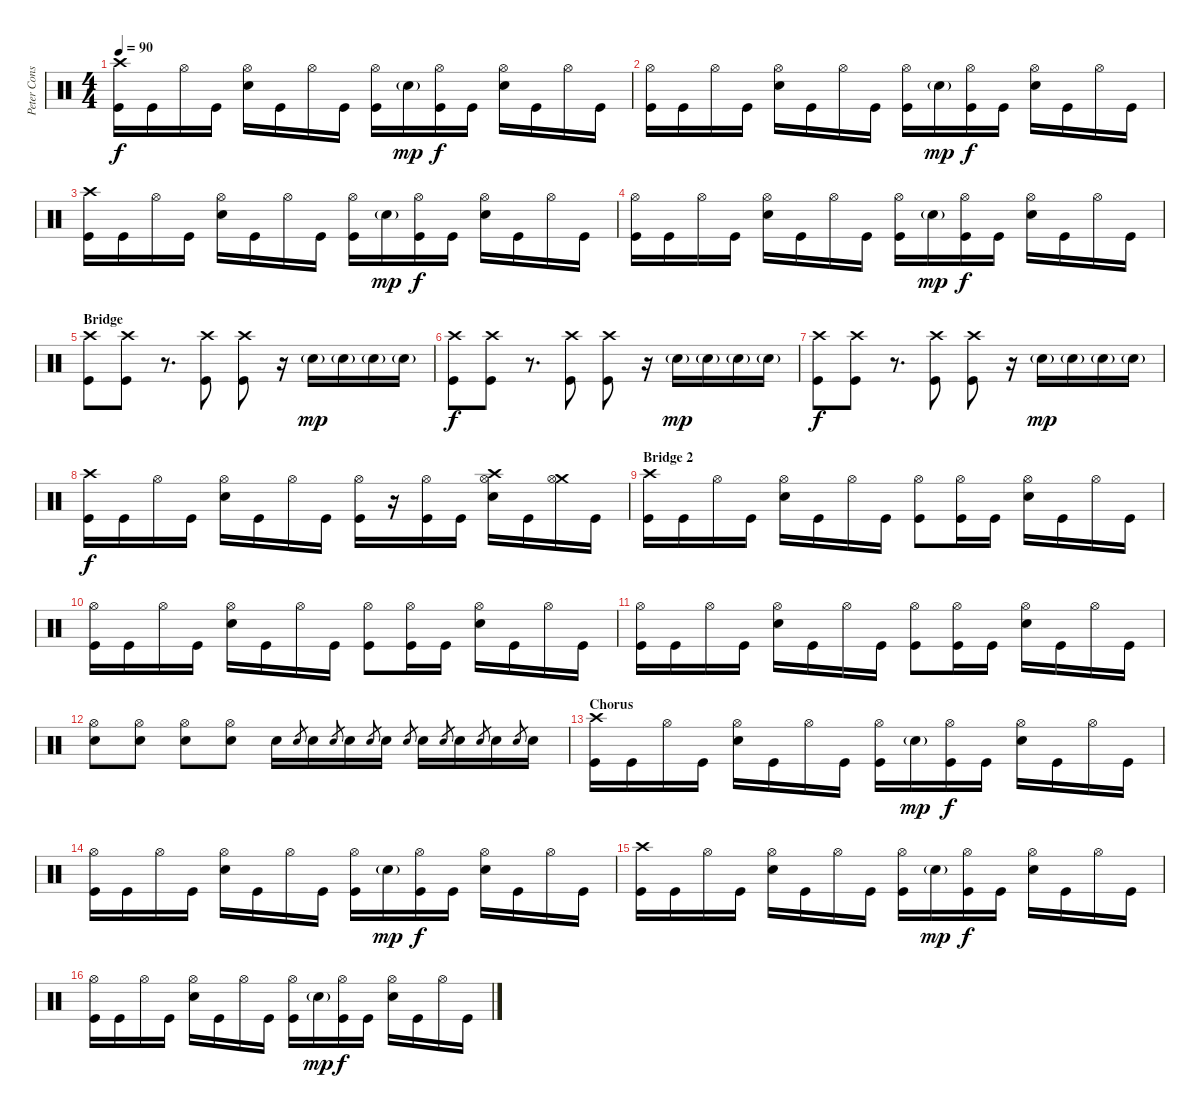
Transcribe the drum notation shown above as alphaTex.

\track ("Peter Constantinou" "Peter Cons") {instrument percussion}
\staff {score}
\articulation defaults
\ts (4 4)
\tempo 90
\clef neutral
\ks c
("Crash high (hit)" "Kick (hit)").16{dy f} "Kick (hit)".16 "Hi-Hat (open)".16 "Kick (hit)".16 ("Hi-Hat (open)" "Snare (hit) 2").16 "Kick (hit)".16 "Hi-Hat (open)".16 "Kick (hit)".16 ("Hi-Hat (open)" "Kick (hit)").16 "Snare (hit) 2"{g}.16{dy mp} ("Hi-Hat (open)" "Kick (hit)").16{dy f} "Kick (hit)".16 ("Hi-Hat (open)" "Snare (hit) 2").16 "Kick (hit)".16 "Hi-Hat (open)".16 "Kick (hit)".16 |
("Hi-Hat (open)" "Kick (hit)").16 "Kick (hit)".16 "Hi-Hat (open)".16 "Kick (hit)".16 ("Hi-Hat (open)" "Snare (hit) 2").16 "Kick (hit)".16 "Hi-Hat (open)".16 "Kick (hit)".16 ("Hi-Hat (open)" "Kick (hit)").16 "Snare (hit) 2"{g}.16{dy mp} ("Hi-Hat (open)" "Kick (hit)").16{dy f} "Kick (hit)".16 ("Hi-Hat (open)" "Snare (hit) 2").16 "Kick (hit)".16 "Hi-Hat (open)".16 "Kick (hit)".16 |
("Crash high (hit)" "Kick (hit)").16 "Kick (hit)".16 "Hi-Hat (open)".16 "Kick (hit)".16 ("Hi-Hat (open)" "Snare (hit) 2").16 "Kick (hit)".16 "Hi-Hat (open)".16 "Kick (hit)".16 ("Hi-Hat (open)" "Kick (hit)").16 "Snare (hit) 2"{g}.16{dy mp} ("Hi-Hat (open)" "Kick (hit)").16{dy f} "Kick (hit)".16 ("Hi-Hat (open)" "Snare (hit) 2").16 "Kick (hit)".16 "Hi-Hat (open)".16 "Kick (hit)".16 |
("Hi-Hat (open)" "Kick (hit)").16 "Kick (hit)".16 "Hi-Hat (open)".16 "Kick (hit)".16 ("Hi-Hat (open)" "Snare (hit) 2").16 "Kick (hit)".16 "Hi-Hat (open)".16 "Kick (hit)".16 ("Hi-Hat (open)" "Kick (hit)").16 "Snare (hit) 2"{g}.16{dy mp} ("Hi-Hat (open)" "Kick (hit)").16{dy f} "Kick (hit)".16 ("Hi-Hat (open)" "Snare (hit) 2").16 "Kick (hit)".16 "Hi-Hat (open)".16 "Kick (hit)".16 |
\section ("" "Bridge")
("Crash high (hit)" "Kick (hit)").8 ("Crash high (hit)" "Kick (hit)").8 r.8{d} ("Crash high (hit)" "Kick (hit)").8 ("Crash high (hit)" "Kick (hit)").8 r.16 "Snare (hit) 2"{g}.16{dy mp} "Snare (hit) 2"{g}.16 "Snare (hit) 2"{g}.16 "Snare (hit) 2"{g}.16 |
("Crash high (hit)" "Kick (hit)").8{dy f} ("Crash high (hit)" "Kick (hit)").8 r.8{d} ("Crash high (hit)" "Kick (hit)").8 ("Crash high (hit)" "Kick (hit)").8 r.16 "Snare (hit) 2"{g}.16{dy mp} "Snare (hit) 2"{g}.16 "Snare (hit) 2"{g}.16 "Snare (hit) 2"{g}.16 |
("Crash high (hit)" "Kick (hit)").8{dy f} ("Crash high (hit)" "Kick (hit)").8 r.8{d} ("Crash high (hit)" "Kick (hit)").8 ("Crash high (hit)" "Kick (hit)").8 r.16 "Snare (hit) 2"{g}.16{dy mp} "Snare (hit) 2"{g}.16 "Snare (hit) 2"{g}.16 "Snare (hit) 2"{g}.16 |
("Crash high (hit)" "Kick (hit)").16{dy f} "Kick (hit)".16 "Hi-Hat (open)".16 "Kick (hit)".16 ("Hi-Hat (open)" "Snare (hit) 2").16 "Kick (hit)".16 "Hi-Hat (open)".16 "Kick (hit)".16 ("Hi-Hat (open)" "Kick (hit)").16 r.16 ("Hi-Hat (open)" "Kick (hit)").16 "Kick (hit)".16 ("Crash high (hit)" "Hi-Hat (open)" "Snare (hit) 2").16 "Kick (hit)".16 ("Crash medium (hit)" "Hi-Hat (open)").16 "Kick (hit)".16 |
\section ("" "Bridge 2")
("Crash high (hit)" "Kick (hit)").16 "Kick (hit)".16 "Hi-Hat (open)".16 "Kick (hit)".16 ("Hi-Hat (open)" "Snare (hit) 2").16 "Kick (hit)".16 "Hi-Hat (open)".16 "Kick (hit)".16 ("Hi-Hat (open)" "Kick (hit)").8 ("Hi-Hat (open)" "Kick (hit)").16 "Kick (hit)".16 ("Hi-Hat (open)" "Snare (hit) 2").16 "Kick (hit)".16 "Hi-Hat (open)".16 "Kick (hit)".16 |
("Hi-Hat (open)" "Kick (hit)").16 "Kick (hit)".16 "Hi-Hat (open)".16 "Kick (hit)".16 ("Hi-Hat (open)" "Snare (hit) 2").16 "Kick (hit)".16 "Hi-Hat (open)".16 "Kick (hit)".16 ("Hi-Hat (open)" "Kick (hit)").8 ("Hi-Hat (open)" "Kick (hit)").16 "Kick (hit)".16 ("Hi-Hat (open)" "Snare (hit) 2").16 "Kick (hit)".16 "Hi-Hat (open)".16 "Kick (hit)".16 |
("Hi-Hat (open)" "Kick (hit)").16 "Kick (hit)".16 "Hi-Hat (open)".16 "Kick (hit)".16 ("Hi-Hat (open)" "Snare (hit) 2").16 "Kick (hit)".16 "Hi-Hat (open)".16 "Kick (hit)".16 ("Hi-Hat (open)" "Kick (hit)").8 ("Hi-Hat (open)" "Kick (hit)").16 "Kick (hit)".16 ("Hi-Hat (open)" "Snare (hit) 2").16 "Kick (hit)".16 "Hi-Hat (open)".16 "Kick (hit)".16 |
("Hi-Hat (open)" "Snare (hit) 2").8 ("Hi-Hat (open)" "Snare (hit) 2").8 ("Hi-Hat (open)" "Snare (hit) 2").8 ("Hi-Hat (open)" "Snare (hit) 2").8 "Snare (hit) 2".16 "Snare (hit) 2".8{gr} "Snare (hit) 2".16 "Snare (hit) 2".8{gr} "Snare (hit) 2".16 "Snare (hit) 2".8{gr} "Snare (hit) 2".16 "Snare (hit) 2".8{gr} "Snare (hit) 2".16 "Snare (hit) 2".8{gr} "Snare (hit) 2".16 "Snare (hit) 2".8{gr} "Snare (hit) 2".16 "Snare (hit) 2".8{gr} "Snare (hit) 2".16 |
\section ("" "Chorus")
("Crash high (hit)" "Kick (hit)").16 "Kick (hit)".16 "Hi-Hat (open)".16 "Kick (hit)".16 ("Hi-Hat (open)" "Snare (hit) 2").16 "Kick (hit)".16 "Hi-Hat (open)".16 "Kick (hit)".16 ("Hi-Hat (open)" "Kick (hit)").16 "Snare (hit) 2"{g}.16{dy mp} ("Hi-Hat (open)" "Kick (hit)").16{dy f} "Kick (hit)".16 ("Hi-Hat (open)" "Snare (hit) 2").16 "Kick (hit)".16 "Hi-Hat (open)".16 "Kick (hit)".16 |
("Hi-Hat (open)" "Kick (hit)").16 "Kick (hit)".16 "Hi-Hat (open)".16 "Kick (hit)".16 ("Hi-Hat (open)" "Snare (hit) 2").16 "Kick (hit)".16 "Hi-Hat (open)".16 "Kick (hit)".16 ("Hi-Hat (open)" "Kick (hit)").16 "Snare (hit) 2"{g}.16{dy mp} ("Hi-Hat (open)" "Kick (hit)").16{dy f} "Kick (hit)".16 ("Hi-Hat (open)" "Snare (hit) 2").16 "Kick (hit)".16 "Hi-Hat (open)".16 "Kick (hit)".16 |
("Crash high (hit)" "Kick (hit)").16 "Kick (hit)".16 "Hi-Hat (open)".16 "Kick (hit)".16 ("Hi-Hat (open)" "Snare (hit) 2").16 "Kick (hit)".16 "Hi-Hat (open)".16 "Kick (hit)".16 ("Hi-Hat (open)" "Kick (hit)").16 "Snare (hit) 2"{g}.16{dy mp} ("Hi-Hat (open)" "Kick (hit)").16{dy f} "Kick (hit)".16 ("Hi-Hat (open)" "Snare (hit) 2").16 "Kick (hit)".16 "Hi-Hat (open)".16 "Kick (hit)".16 |
("Hi-Hat (open)" "Kick (hit)").16 "Kick (hit)".16 "Hi-Hat (open)".16 "Kick (hit)".16 ("Hi-Hat (open)" "Snare (hit) 2").16 "Kick (hit)".16 "Hi-Hat (open)".16 "Kick (hit)".16 ("Hi-Hat (open)" "Kick (hit)").16 "Snare (hit) 2"{g}.16{dy mp} ("Hi-Hat (open)" "Kick (hit)").16{dy f} "Kick (hit)".16 ("Hi-Hat (open)" "Snare (hit) 2").16 "Kick (hit)".16 "Hi-Hat (open)".16 "Kick (hit)".16
